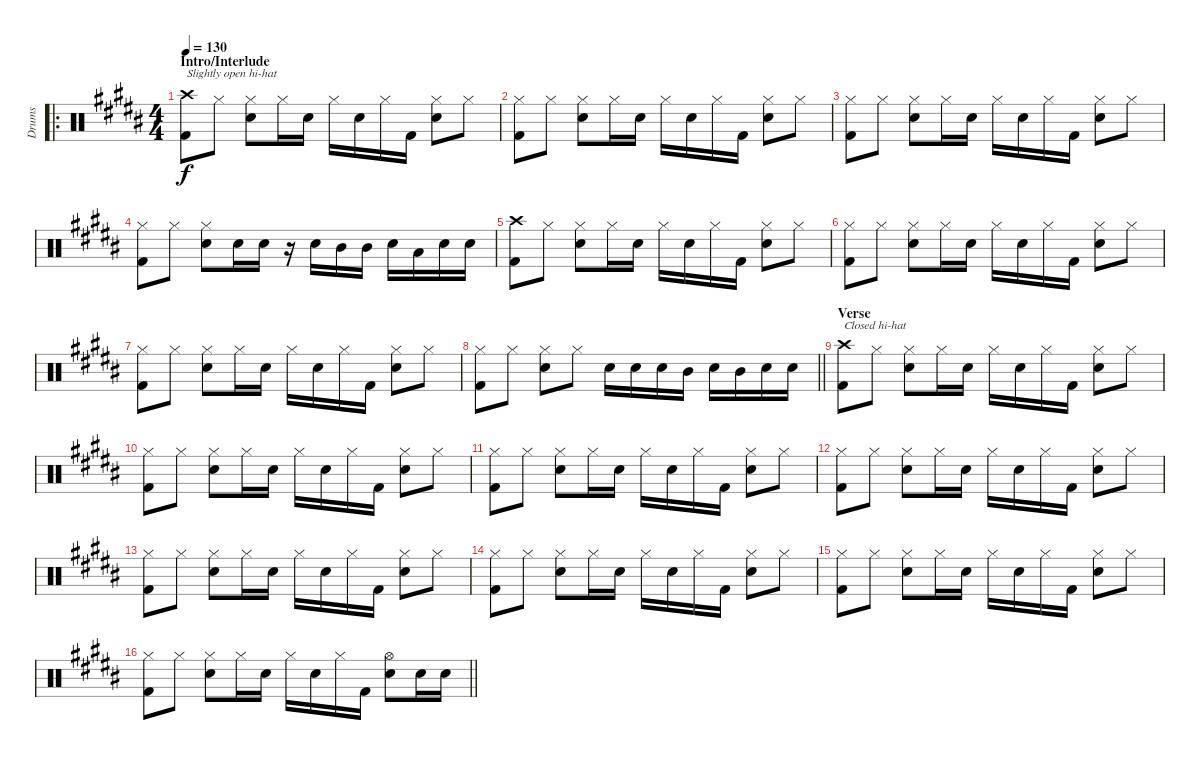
\track ("Drums" "Drums") {instrument percussion}
\staff {score}
\articulation defaults
\ro
\ts (4 4)
\section ("" "Intro/Interlude")
\tempo 130
\clef neutral
\ks b
("Kick (hit) 2" "Crash high (hit)").8{txt "Slightly open hi-hat" dy f} "Hi-Hat (closed)".8 ("Snare (hit) 2" "Hi-Hat (closed)").8 "Hi-Hat (closed)".16 "Snare (hit) 2".16 "Hi-Hat (closed)".16 "Snare (hit) 2".16 "Hi-Hat (closed)".16 "Kick (hit) 2".16 ("Snare (hit) 2" "Hi-Hat (closed)").8 "Hi-Hat (closed)".8 |
("Kick (hit) 2" "Hi-Hat (closed)").8 "Hi-Hat (closed)".8 ("Snare (hit) 2" "Hi-Hat (closed)").8 "Hi-Hat (closed)".16 "Snare (hit) 2".16 "Hi-Hat (closed)".16 "Snare (hit) 2".16 "Hi-Hat (closed)".16 "Kick (hit) 2".16 ("Snare (hit) 2" "Hi-Hat (closed)").8 "Hi-Hat (closed)".8 |
("Kick (hit) 2" "Hi-Hat (closed)").8 "Hi-Hat (closed)".8 ("Snare (hit) 2" "Hi-Hat (closed)").8 "Hi-Hat (closed)".16 "Snare (hit) 2".16 "Hi-Hat (closed)".16 "Snare (hit) 2".16 "Hi-Hat (closed)".16 "Kick (hit) 2".16 ("Snare (hit) 2" "Hi-Hat (closed)").8 "Hi-Hat (closed)".8 |
("Kick (hit) 2" "Hi-Hat (closed)").8 "Hi-Hat (closed)".8 ("Snare (hit) 2" "Hi-Hat (closed)").8 "Snare (hit) 2".16 "Snare (hit) 2".16 r.16 "Snare (hit) 2".16 "Mid Tom (hit)".16 "Mid Tom (hit)".16 "Snare (hit) 2".16 "Low Tom (hit)".16 "Snare (hit) 2".16 "Snare (hit) 2".16 |
("Kick (hit) 2" "Crash high (hit)").8 "Hi-Hat (closed)".8 ("Snare (hit) 2" "Hi-Hat (closed)").8 "Hi-Hat (closed)".16 "Snare (hit) 2".16 "Hi-Hat (closed)".16 "Snare (hit) 2".16 "Hi-Hat (closed)".16 "Kick (hit) 2".16 ("Snare (hit) 2" "Hi-Hat (closed)").8 "Hi-Hat (closed)".8 |
("Kick (hit) 2" "Hi-Hat (closed)").8 "Hi-Hat (closed)".8 ("Snare (hit) 2" "Hi-Hat (closed)").8 "Hi-Hat (closed)".16 "Snare (hit) 2".16 "Hi-Hat (closed)".16 "Snare (hit) 2".16 "Hi-Hat (closed)".16 "Kick (hit) 2".16 ("Snare (hit) 2" "Hi-Hat (closed)").8 "Hi-Hat (closed)".8 |
("Kick (hit) 2" "Hi-Hat (closed)").8 "Hi-Hat (closed)".8 ("Snare (hit) 2" "Hi-Hat (closed)").8 "Hi-Hat (closed)".16 "Snare (hit) 2".16 "Hi-Hat (closed)".16 "Snare (hit) 2".16 "Hi-Hat (closed)".16 "Kick (hit) 2".16 ("Snare (hit) 2" "Hi-Hat (closed)").8 "Hi-Hat (closed)".8 |
\barLineRight lightlight
("Kick (hit) 2" "Hi-Hat (closed)").8 "Hi-Hat (closed)".8 ("Snare (hit) 2" "Hi-Hat (closed)").8 "Hi-Hat (closed)".8 "Snare (hit) 2".16 "Snare (hit) 2".16 "Snare (hit) 2".16 "Mid Tom (hit)".16 "Snare (hit) 2".16 "Mid Tom (hit)".16 "Snare (hit) 2".16 "Snare (hit) 2".16 |
\section ("" "Verse")
("Kick (hit) 2" "Crash high (hit)").8{txt "Closed hi-hat"} "Hi-Hat (closed)".8 ("Snare (hit) 2" "Hi-Hat (closed)").8 "Hi-Hat (closed)".16 "Snare (hit) 2".16 "Hi-Hat (closed)".16 "Snare (hit) 2".16 "Hi-Hat (closed)".16 "Kick (hit) 2".16 ("Snare (hit) 2" "Hi-Hat (closed)").8 "Hi-Hat (closed)".8 |
("Kick (hit) 2" "Hi-Hat (closed)").8 "Hi-Hat (closed)".8 ("Snare (hit) 2" "Hi-Hat (closed)").8 "Hi-Hat (closed)".16 "Snare (hit) 2".16 "Hi-Hat (closed)".16 "Snare (hit) 2".16 "Hi-Hat (closed)".16 "Kick (hit) 2".16 ("Snare (hit) 2" "Hi-Hat (closed)").8 "Hi-Hat (closed)".8 |
("Kick (hit) 2" "Hi-Hat (closed)").8 "Hi-Hat (closed)".8 ("Snare (hit) 2" "Hi-Hat (closed)").8 "Hi-Hat (closed)".16 "Snare (hit) 2".16 "Hi-Hat (closed)".16 "Snare (hit) 2".16 "Hi-Hat (closed)".16 "Kick (hit) 2".16 ("Snare (hit) 2" "Hi-Hat (closed)").8 "Hi-Hat (closed)".8 |
("Kick (hit) 2" "Hi-Hat (closed)").8 "Hi-Hat (closed)".8 ("Snare (hit) 2" "Hi-Hat (closed)").8 "Hi-Hat (closed)".16 "Snare (hit) 2".16 "Hi-Hat (closed)".16 "Snare (hit) 2".16 "Hi-Hat (closed)".16 "Kick (hit) 2".16 ("Snare (hit) 2" "Hi-Hat (closed)").8 "Hi-Hat (closed)".8 |
("Kick (hit) 2" "Hi-Hat (closed)").8 "Hi-Hat (closed)".8 ("Snare (hit) 2" "Hi-Hat (closed)").8 "Hi-Hat (closed)".16 "Snare (hit) 2".16 "Hi-Hat (closed)".16 "Snare (hit) 2".16 "Hi-Hat (closed)".16 "Kick (hit) 2".16 ("Snare (hit) 2" "Hi-Hat (closed)").8 "Hi-Hat (closed)".8 |
("Kick (hit) 2" "Hi-Hat (closed)").8 "Hi-Hat (closed)".8 ("Snare (hit) 2" "Hi-Hat (closed)").8 "Hi-Hat (closed)".16 "Snare (hit) 2".16 "Hi-Hat (closed)".16 "Snare (hit) 2".16 "Hi-Hat (closed)".16 "Kick (hit) 2".16 ("Snare (hit) 2" "Hi-Hat (closed)").8 "Hi-Hat (closed)".8 |
("Kick (hit) 2" "Hi-Hat (closed)").8 "Hi-Hat (closed)".8 ("Snare (hit) 2" "Hi-Hat (closed)").8 "Hi-Hat (closed)".16 "Snare (hit) 2".16 "Hi-Hat (closed)".16 "Snare (hit) 2".16 "Hi-Hat (closed)".16 "Kick (hit) 2".16 ("Snare (hit) 2" "Hi-Hat (closed)").8 "Hi-Hat (closed)".8 |
\barLineRight lightlight
("Kick (hit) 2" "Hi-Hat (closed)").8 "Hi-Hat (closed)".8 ("Snare (hit) 2" "Hi-Hat (closed)").8 "Hi-Hat (closed)".16 "Snare (hit) 2".16 "Hi-Hat (closed)".16 "Snare (hit) 2".16 "Hi-Hat (closed)".16 "Kick (hit) 2".16 ("Snare (hit) 2" "Hi-Hat (open)").8 "Snare (hit) 2".16 "Snare (hit) 2".16
